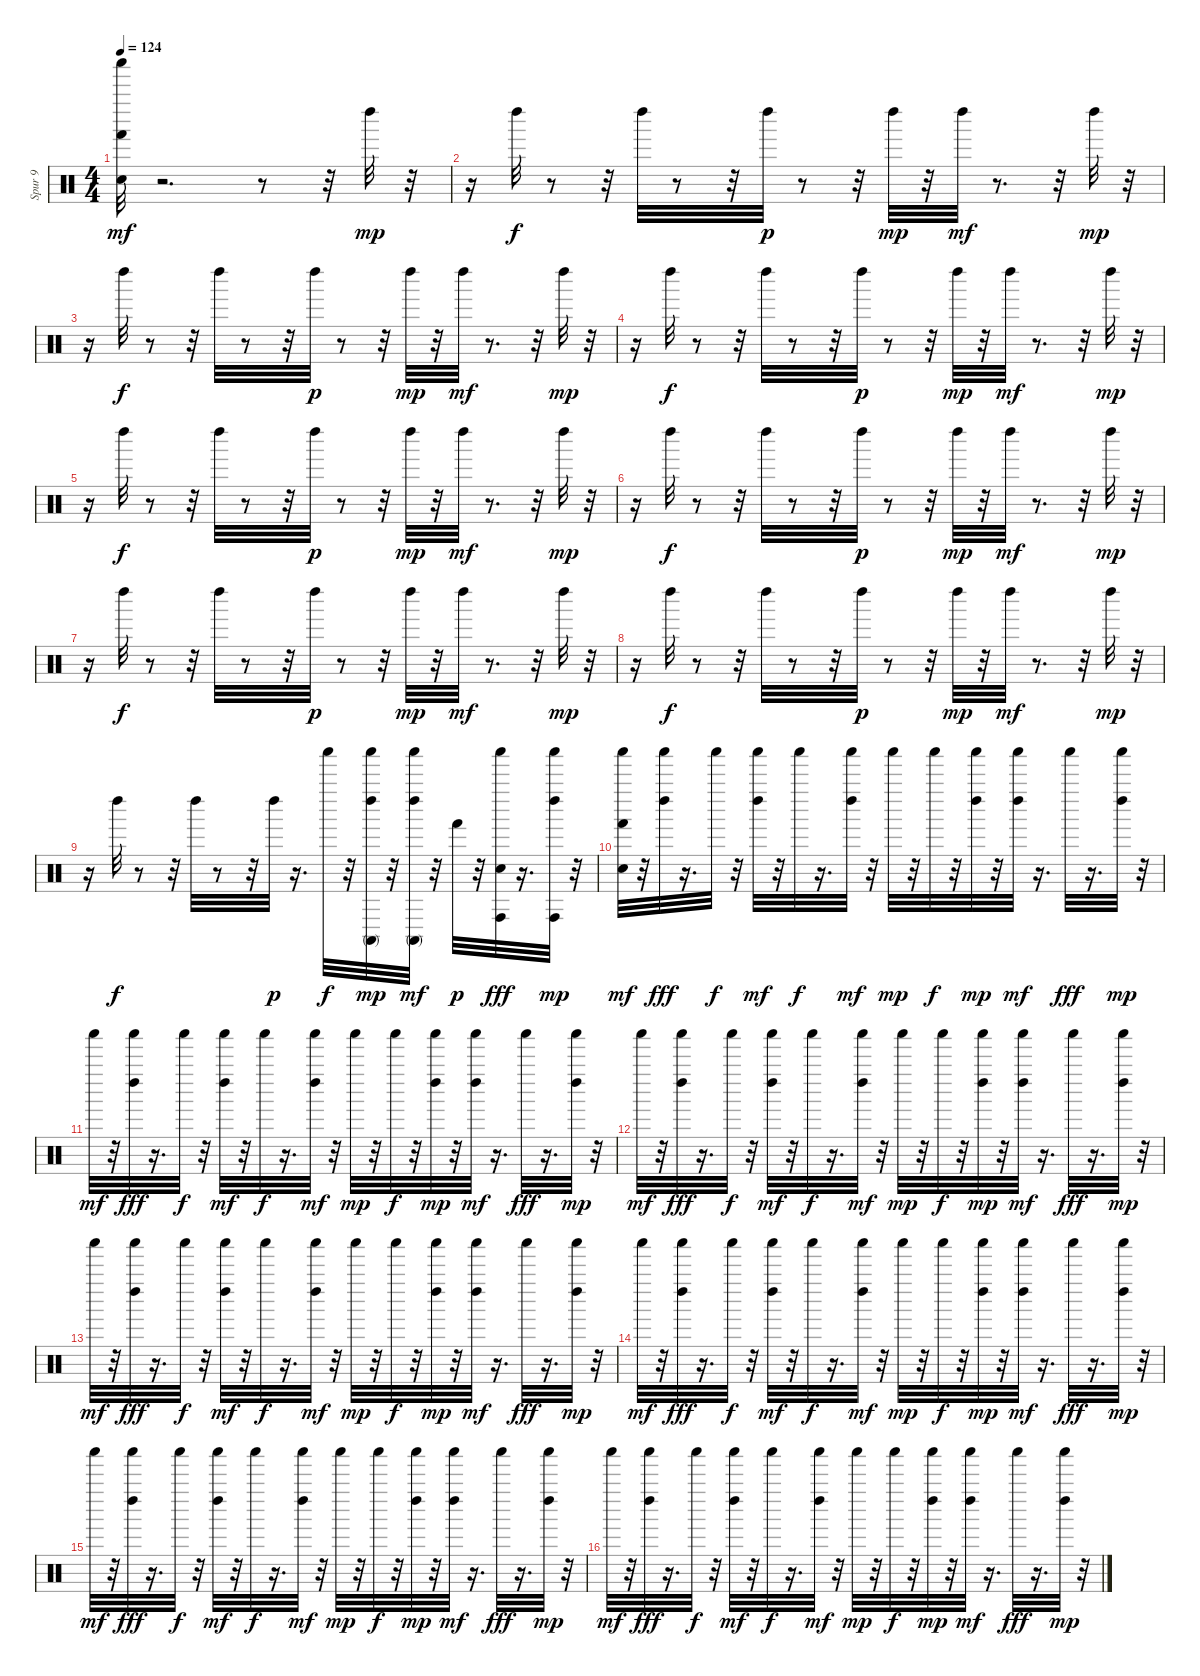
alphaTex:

\track ("Spur 9" "Spur 9") {instrument percussion}
\staff {score}
\articulation defaults
\ts (4 4)
\tempo 124
\clef neutral
\ks c
("Electric Snare (hit)" "Hand (hit)" "Shaker (hit)").32{dy mf} r.2{d} r.8 r.32 "Left Maraca (hit)".32{dy mp} r.32 |
r.16 "Left Maraca (hit)".32{dy f} r.8 r.32 "Left Maraca (hit)".32 r.8 r.32 "Left Maraca (hit)".32{dy p} r.8 r.32 "Left Maraca (hit)".32{dy mp} r.32 "Left Maraca (hit)".32{dy mf} r.8{d} r.32 "Left Maraca (hit)".32{dy mp} r.32 |
r.16 "Left Maraca (hit)".32{dy f} r.8 r.32 "Left Maraca (hit)".32 r.8 r.32 "Left Maraca (hit)".32{dy p} r.8 r.32 "Left Maraca (hit)".32{dy mp} r.32 "Left Maraca (hit)".32{dy mf} r.8{d} r.32 "Left Maraca (hit)".32{dy mp} r.32 |
r.16 "Left Maraca (hit)".32{dy f} r.8 r.32 "Left Maraca (hit)".32 r.8 r.32 "Left Maraca (hit)".32{dy p} r.8 r.32 "Left Maraca (hit)".32{dy mp} r.32 "Left Maraca (hit)".32{dy mf} r.8{d} r.32 "Left Maraca (hit)".32{dy mp} r.32 |
r.16 "Left Maraca (hit)".32{dy f} r.8 r.32 "Left Maraca (hit)".32 r.8 r.32 "Left Maraca (hit)".32{dy p} r.8 r.32 "Left Maraca (hit)".32{dy mp} r.32 "Left Maraca (hit)".32{dy mf} r.8{d} r.32 "Left Maraca (hit)".32{dy mp} r.32 |
r.16 "Left Maraca (hit)".32{dy f} r.8 r.32 "Left Maraca (hit)".32 r.8 r.32 "Left Maraca (hit)".32{dy p} r.8 r.32 "Left Maraca (hit)".32{dy mp} r.32 "Left Maraca (hit)".32{dy mf} r.8{d} r.32 "Left Maraca (hit)".32{dy mp} r.32 |
r.16 "Left Maraca (hit)".32{dy f} r.8 r.32 "Left Maraca (hit)".32 r.8 r.32 "Left Maraca (hit)".32{dy p} r.8 r.32 "Left Maraca (hit)".32{dy mp} r.32 "Left Maraca (hit)".32{dy mf} r.8{d} r.32 "Left Maraca (hit)".32{dy mp} r.32 |
r.16 "Left Maraca (hit)".32{dy f} r.8 r.32 "Left Maraca (hit)".32 r.8 r.32 "Left Maraca (hit)".32{dy p} r.8 r.32 "Left Maraca (hit)".32{dy mp} r.32 "Left Maraca (hit)".32{dy mf} r.8{d} r.32 "Left Maraca (hit)".32{dy mp} r.32 |
r.16 "Left Maraca (hit)".32{dy f} r.8 r.32 "Left Maraca (hit)".32 r.8 r.32 "Left Maraca (hit)".32{dy p} r.16{d} "Shaker (hit)".32{dy f} r.32 ("Conga high (mute)" "Left Maraca (hit)" "Shaker (hit)").32{dy mp} r.32 ("Conga high (mute)" "Left Maraca (hit)" "Shaker (hit)").32{dy mf} r.32 "Hand (hit)".32{dy p} r.32 ("Electric Snare (hit)" "Conga high (hit)" "Shaker (hit)").32{dy fff} r.16{d} ("Conga high (hit)" "Left Maraca (hit)" "Shaker (hit)").32{dy mp} r.32 |
("Electric Snare (hit)" "Hand (hit)" "Shaker (hit)").32{dy mf} r.32 ("Left Maraca (hit)" "Shaker (hit)").32{dy fff} r.16{d} "Shaker (hit)".32{dy f} r.32 ("Left Maraca (hit)" "Shaker (hit)").32{dy mf} r.32 "Shaker (hit)".32{dy f} r.16{d} ("Left Maraca (hit)" "Shaker (hit)").32{dy mf} r.32 "Shaker (hit)".32{dy mp} r.32 "Shaker (hit)".32{dy f} r.32 ("Left Maraca (hit)" "Shaker (hit)").32{dy mp} r.32 ("Left Maraca (hit)" "Shaker (hit)").32{dy mf} r.16{d} "Shaker (hit)".32{dy fff} r.16{d} ("Left Maraca (hit)" "Shaker (hit)").32{dy mp} r.32 |
"Shaker (hit)".32{dy mf} r.32 ("Left Maraca (hit)" "Shaker (hit)").32{dy fff} r.16{d} "Shaker (hit)".32{dy f} r.32 ("Left Maraca (hit)" "Shaker (hit)").32{dy mf} r.32 "Shaker (hit)".32{dy f} r.16{d} ("Left Maraca (hit)" "Shaker (hit)").32{dy mf} r.32 "Shaker (hit)".32{dy mp} r.32 "Shaker (hit)".32{dy f} r.32 ("Left Maraca (hit)" "Shaker (hit)").32{dy mp} r.32 ("Left Maraca (hit)" "Shaker (hit)").32{dy mf} r.16{d} "Shaker (hit)".32{dy fff} r.16{d} ("Left Maraca (hit)" "Shaker (hit)").32{dy mp} r.32 |
"Shaker (hit)".32{dy mf} r.32 ("Left Maraca (hit)" "Shaker (hit)").32{dy fff} r.16{d} "Shaker (hit)".32{dy f} r.32 ("Left Maraca (hit)" "Shaker (hit)").32{dy mf} r.32 "Shaker (hit)".32{dy f} r.16{d} ("Left Maraca (hit)" "Shaker (hit)").32{dy mf} r.32 "Shaker (hit)".32{dy mp} r.32 "Shaker (hit)".32{dy f} r.32 ("Left Maraca (hit)" "Shaker (hit)").32{dy mp} r.32 ("Left Maraca (hit)" "Shaker (hit)").32{dy mf} r.16{d} "Shaker (hit)".32{dy fff} r.16{d} ("Left Maraca (hit)" "Shaker (hit)").32{dy mp} r.32 |
"Shaker (hit)".32{dy mf} r.32 ("Left Maraca (hit)" "Shaker (hit)").32{dy fff} r.16{d} "Shaker (hit)".32{dy f} r.32 ("Left Maraca (hit)" "Shaker (hit)").32{dy mf} r.32 "Shaker (hit)".32{dy f} r.16{d} ("Left Maraca (hit)" "Shaker (hit)").32{dy mf} r.32 "Shaker (hit)".32{dy mp} r.32 "Shaker (hit)".32{dy f} r.32 ("Left Maraca (hit)" "Shaker (hit)").32{dy mp} r.32 ("Left Maraca (hit)" "Shaker (hit)").32{dy mf} r.16{d} "Shaker (hit)".32{dy fff} r.16{d} ("Left Maraca (hit)" "Shaker (hit)").32{dy mp} r.32 |
"Shaker (hit)".32{dy mf} r.32 ("Left Maraca (hit)" "Shaker (hit)").32{dy fff} r.16{d} "Shaker (hit)".32{dy f} r.32 ("Left Maraca (hit)" "Shaker (hit)").32{dy mf} r.32 "Shaker (hit)".32{dy f} r.16{d} ("Left Maraca (hit)" "Shaker (hit)").32{dy mf} r.32 "Shaker (hit)".32{dy mp} r.32 "Shaker (hit)".32{dy f} r.32 ("Left Maraca (hit)" "Shaker (hit)").32{dy mp} r.32 ("Left Maraca (hit)" "Shaker (hit)").32{dy mf} r.16{d} "Shaker (hit)".32{dy fff} r.16{d} ("Left Maraca (hit)" "Shaker (hit)").32{dy mp} r.32 |
"Shaker (hit)".32{dy mf} r.32 ("Left Maraca (hit)" "Shaker (hit)").32{dy fff} r.16{d} "Shaker (hit)".32{dy f} r.32 ("Left Maraca (hit)" "Shaker (hit)").32{dy mf} r.32 "Shaker (hit)".32{dy f} r.16{d} ("Left Maraca (hit)" "Shaker (hit)").32{dy mf} r.32 "Shaker (hit)".32{dy mp} r.32 "Shaker (hit)".32{dy f} r.32 ("Left Maraca (hit)" "Shaker (hit)").32{dy mp} r.32 ("Left Maraca (hit)" "Shaker (hit)").32{dy mf} r.16{d} "Shaker (hit)".32{dy fff} r.16{d} ("Left Maraca (hit)" "Shaker (hit)").32{dy mp} r.32 |
"Shaker (hit)".32{dy mf} r.32 ("Left Maraca (hit)" "Shaker (hit)").32{dy fff} r.16{d} "Shaker (hit)".32{dy f} r.32 ("Left Maraca (hit)" "Shaker (hit)").32{dy mf} r.32 "Shaker (hit)".32{dy f} r.16{d} ("Left Maraca (hit)" "Shaker (hit)").32{dy mf} r.32 "Shaker (hit)".32{dy mp} r.32 "Shaker (hit)".32{dy f} r.32 ("Left Maraca (hit)" "Shaker (hit)").32{dy mp} r.32 ("Left Maraca (hit)" "Shaker (hit)").32{dy mf} r.16{d} "Shaker (hit)".32{dy fff} r.16{d} ("Left Maraca (hit)" "Shaker (hit)").32{dy mp} r.32
